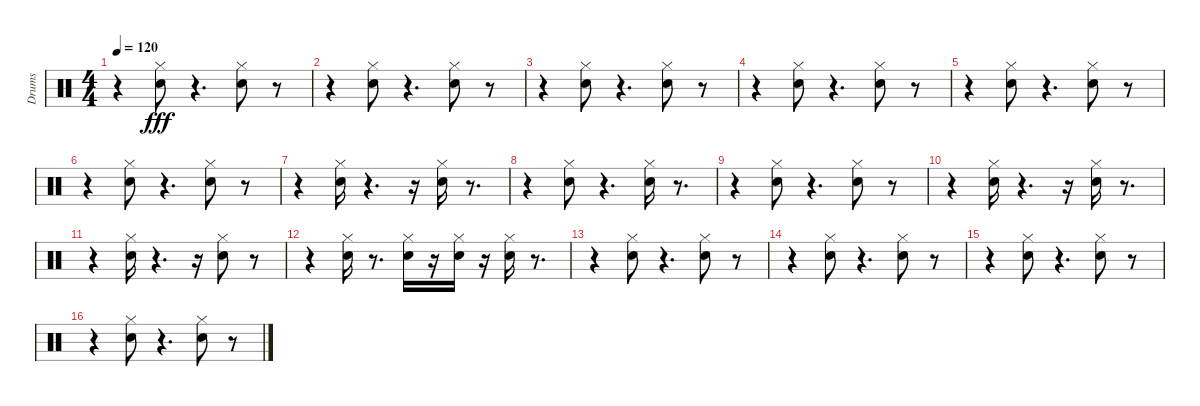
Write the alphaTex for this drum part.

\track ("Drums" "Drums") {instrument percussion}
\staff {score}
\articulation defaults
\ts (4 4)
\tempo 120
\clef neutral
\ks c
r.4{dy fff} ("Hi-Hat (closed)" "Electric Snare (hit)").8 r.4{d} ("Hi-Hat (closed)" "Electric Snare (hit)").8 r.8 |
r.4 ("Hi-Hat (closed)" "Electric Snare (hit)").8 r.4{d} ("Hi-Hat (closed)" "Electric Snare (hit)").8 r.8 |
r.4 ("Hi-Hat (closed)" "Electric Snare (hit)").8 r.4{d} ("Hi-Hat (closed)" "Electric Snare (hit)").8 r.8 |
r.4 ("Hi-Hat (closed)" "Electric Snare (hit)").8 r.4{d} ("Hi-Hat (closed)" "Electric Snare (hit)").8 r.8 |
r.4 ("Hi-Hat (closed)" "Electric Snare (hit)").8 r.4{d} ("Hi-Hat (closed)" "Electric Snare (hit)").8 r.8 |
r.4 ("Hi-Hat (closed)" "Electric Snare (hit)").8 r.4{d} ("Hi-Hat (closed)" "Electric Snare (hit)").8 r.8 |
r.4 ("Hi-Hat (closed)" "Electric Snare (hit)").16 r.4{d} r.16 ("Hi-Hat (closed)" "Electric Snare (hit)").16 r.8{d} |
r.4 ("Hi-Hat (closed)" "Electric Snare (hit)").8 r.4{d} ("Hi-Hat (closed)" "Electric Snare (hit)").16 r.8{d} |
r.4 ("Hi-Hat (closed)" "Electric Snare (hit)").8 r.4{d} ("Hi-Hat (closed)" "Electric Snare (hit)").8 r.8 |
r.4 ("Hi-Hat (closed)" "Electric Snare (hit)").16 r.4{d} r.16 ("Hi-Hat (closed)" "Electric Snare (hit)").16 r.8{d} |
r.4 ("Hi-Hat (closed)" "Electric Snare (hit)").16 r.4{d} r.16 ("Hi-Hat (closed)" "Electric Snare (hit)").8 r.8 |
r.4 ("Hi-Hat (closed)" "Electric Snare (hit)").16 r.8{d} ("Hi-Hat (closed)" "Electric Snare (hit)").16 r.16 ("Hi-Hat (closed)" "Electric Snare (hit)").16 r.16 ("Hi-Hat (closed)" "Electric Snare (hit)").16 r.8{d} |
r.4 ("Hi-Hat (closed)" "Electric Snare (hit)").8 r.4{d} ("Hi-Hat (closed)" "Electric Snare (hit)").8 r.8 |
r.4 ("Hi-Hat (closed)" "Electric Snare (hit)").8 r.4{d} ("Hi-Hat (closed)" "Electric Snare (hit)").8 r.8 |
r.4 ("Hi-Hat (closed)" "Electric Snare (hit)").8 r.4{d} ("Hi-Hat (closed)" "Electric Snare (hit)").8 r.8 |
r.4 ("Hi-Hat (closed)" "Electric Snare (hit)").8 r.4{d} ("Hi-Hat (closed)" "Electric Snare (hit)").8 r.8
